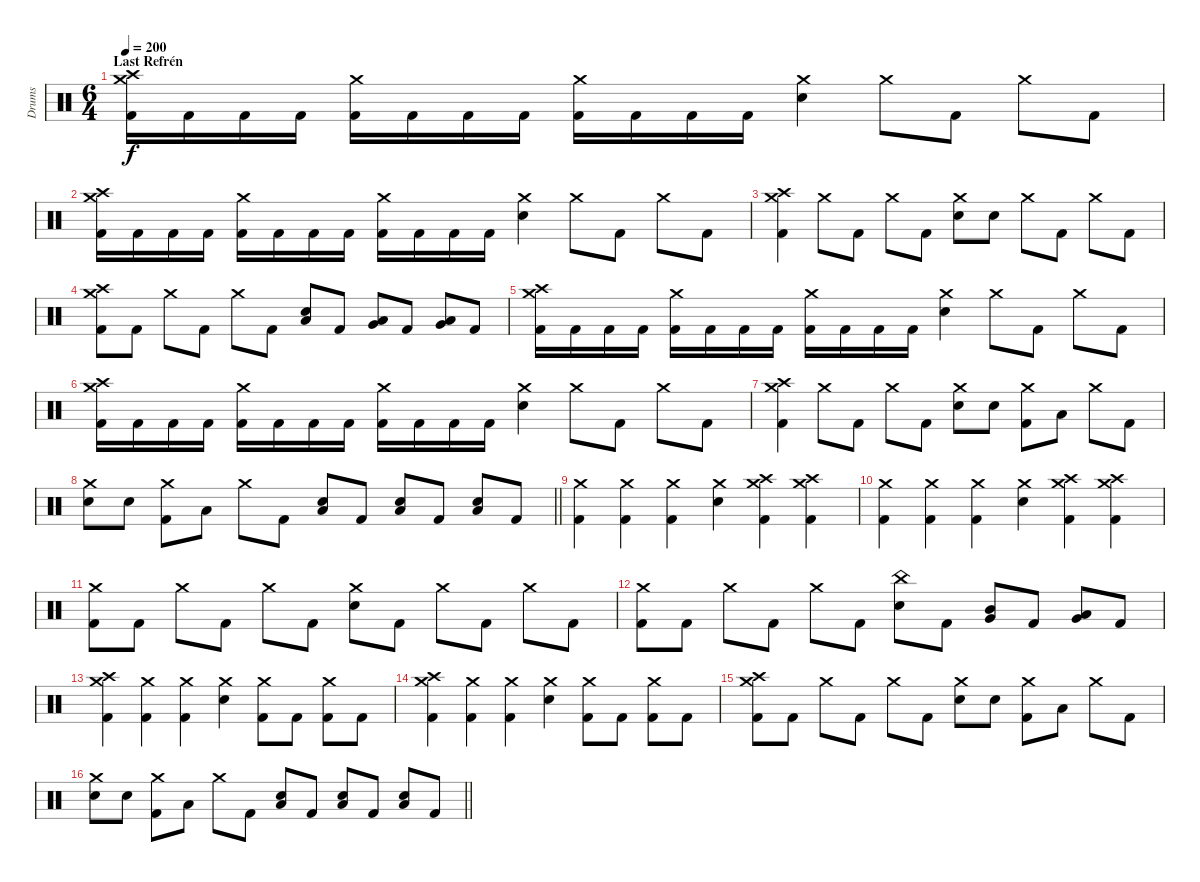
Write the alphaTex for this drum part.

\track ("Drums" "Drums") {instrument percussion}
\staff {score}
\articulation defaults
\ts (6 4)
\section ("" "Last Refrén")
\tempo 200
\clef neutral
\ks c
("Crash medium (hit)" "Crash high (hit)" "Kick (hit) 2").16{dy f} "Kick (hit) 2".16 "Kick (hit) 2".16 "Kick (hit) 2".16 ("Crash medium (hit)" "Kick (hit) 2").16 "Kick (hit) 2".16 "Kick (hit) 2".16 "Kick (hit) 2".16 ("Crash medium (hit)" "Kick (hit) 2").16 "Kick (hit) 2".16 "Kick (hit) 2".16 "Kick (hit) 2".16 ("Crash medium (hit)" "Electric Snare (hit)").4 "Crash medium (hit)".8 "Kick (hit) 2".8 "Crash medium (hit)".8 "Kick (hit) 2".8 |
("Crash medium (hit)" "Crash high (hit)" "Kick (hit) 2").16 "Kick (hit) 2".16 "Kick (hit) 2".16 "Kick (hit) 2".16 ("Crash medium (hit)" "Kick (hit) 2").16 "Kick (hit) 2".16 "Kick (hit) 2".16 "Kick (hit) 2".16 ("Crash medium (hit)" "Kick (hit) 2").16 "Kick (hit) 2".16 "Kick (hit) 2".16 "Kick (hit) 2".16 ("Crash medium (hit)" "Electric Snare (hit)").4 "Crash medium (hit)".8 "Kick (hit) 2".8 "Crash medium (hit)".8 "Kick (hit) 2".8 |
("Crash medium (hit)" "Crash high (hit)" "Kick (hit) 2").4 "Crash medium (hit)".8 "Kick (hit) 2".8 "Crash medium (hit)".8 "Kick (hit) 2".8 ("Crash medium (hit)" "Electric Snare (hit)").8 "Electric Snare (hit)".8 "Crash medium (hit)".8 "Kick (hit) 2".8 "Crash medium (hit)".8 "Kick (hit) 2".8 |
("Crash medium (hit)" "Crash high (hit)" "Kick (hit) 2").8 "Kick (hit) 2".8 "Crash medium (hit)".8 "Kick (hit) 2".8 "Crash medium (hit)".8 "Kick (hit) 2".8 ("Low Floor Tom (hit)" "Electric Snare (hit)").8 "Kick (hit) 2".8 ("Low Tom (hit)" "Very Low Tom (hit)").8 "Kick (hit) 2".8 ("Very Low Tom (hit)" "Low Floor Tom (hit)").8 "Kick (hit) 2".8 |
("Crash medium (hit)" "Crash high (hit)" "Kick (hit) 2").16 "Kick (hit) 2".16 "Kick (hit) 2".16 "Kick (hit) 2".16 ("Crash medium (hit)" "Kick (hit) 2").16 "Kick (hit) 2".16 "Kick (hit) 2".16 "Kick (hit) 2".16 ("Crash medium (hit)" "Kick (hit) 2").16 "Kick (hit) 2".16 "Kick (hit) 2".16 "Kick (hit) 2".16 ("Crash medium (hit)" "Electric Snare (hit)").4 "Crash medium (hit)".8 "Kick (hit) 2".8 "Crash medium (hit)".8 "Kick (hit) 2".8 |
("Crash medium (hit)" "Crash high (hit)" "Kick (hit) 2").16 "Kick (hit) 2".16 "Kick (hit) 2".16 "Kick (hit) 2".16 ("Crash medium (hit)" "Kick (hit) 2").16 "Kick (hit) 2".16 "Kick (hit) 2".16 "Kick (hit) 2".16 ("Crash medium (hit)" "Kick (hit) 2").16 "Kick (hit) 2".16 "Kick (hit) 2".16 "Kick (hit) 2".16 ("Crash medium (hit)" "Electric Snare (hit)").4 "Crash medium (hit)".8 "Kick (hit) 2".8 "Crash medium (hit)".8 "Kick (hit) 2".8 |
("Crash medium (hit)" "Crash high (hit)" "Kick (hit) 2").4 "Crash medium (hit)".8 "Kick (hit) 2".8 "Crash medium (hit)".8 "Kick (hit) 2".8 ("Crash medium (hit)" "Electric Snare (hit)").8 "Electric Snare (hit)".8 ("Crash medium (hit)" "Kick (hit) 2").8 "Low Tom (hit)".8 "Crash medium (hit)".8 "Kick (hit) 2".8 |
\barLineRight lightlight
("Crash medium (hit)" "Electric Snare (hit)").8 "Electric Snare (hit)".8 ("Crash medium (hit)" "Kick (hit) 2").8 "Low Tom (hit)".8 "Crash medium (hit)".8 "Kick (hit) 2".8 ("Low Floor Tom (hit)" "Electric Snare (hit)").8 "Kick (hit) 2".8 ("Low Floor Tom (hit)" "Electric Snare (hit)").8 "Kick (hit) 2".8 ("Low Floor Tom (hit)" "Electric Snare (hit)").8 "Kick (hit) 2".8 |
("Crash medium (hit)" "Kick (hit) 2").4 ("Crash medium (hit)" "Kick (hit) 2").4 ("Crash medium (hit)" "Kick (hit) 2").4 ("Crash medium (hit)" "Electric Snare (hit)").4 ("Crash medium (hit)" "Crash high (hit)" "Kick (hit) 2").4 ("Crash medium (hit)" "Crash high (hit)" "Kick (hit) 2").4 |
("Crash medium (hit)" "Kick (hit) 2").4 ("Crash medium (hit)" "Kick (hit) 2").4 ("Crash medium (hit)" "Kick (hit) 2").4 ("Crash medium (hit)" "Electric Snare (hit)").4 ("Crash medium (hit)" "Crash high (hit)" "Kick (hit) 2").4 ("Crash medium (hit)" "Crash high (hit)" "Kick (hit) 2").4 |
("Crash medium (hit)" "Kick (hit) 2").8 "Kick (hit) 2".8 "Crash medium (hit)".8 "Kick (hit) 2".8 "Crash medium (hit)".8 "Kick (hit) 2".8 ("Crash medium (hit)" "Electric Snare (hit)").8 "Kick (hit) 2".8 "Crash medium (hit)".8 "Kick (hit) 2".8 "Crash medium (hit)".8 "Kick (hit) 2".8 |
("Crash medium (hit)" "Kick (hit) 2").8 "Kick (hit) 2".8 "Crash medium (hit)".8 "Kick (hit) 2".8 "Crash medium (hit)".8 "Kick (hit) 2".8 ("China (hit)" "Electric Snare (hit)").8 "Kick (hit) 2".8 ("Mid Tom (hit)" "Very Low Tom (hit)").8 "Kick (hit) 2".8 ("Very Low Tom (hit)" "Low Floor Tom (hit)").8 "Kick (hit) 2".8 |
("Crash medium (hit)" "Crash high (hit)" "Kick (hit) 2").4 ("Crash medium (hit)" "Kick (hit) 2").4 ("Crash medium (hit)" "Kick (hit) 2").4 ("Crash medium (hit)" "Electric Snare (hit)").4 ("Crash medium (hit)" "Kick (hit) 2").8 "Kick (hit) 2".8 ("Crash medium (hit)" "Kick (hit) 2").8 "Kick (hit) 2".8 |
("Crash medium (hit)" "Crash high (hit)" "Kick (hit) 2").4 ("Crash medium (hit)" "Kick (hit) 2").4 ("Crash medium (hit)" "Kick (hit) 2").4 ("Crash medium (hit)" "Electric Snare (hit)").4 ("Crash medium (hit)" "Kick (hit) 2").8 "Kick (hit) 2".8 ("Crash medium (hit)" "Kick (hit) 2").8 "Kick (hit) 2".8 |
("Crash medium (hit)" "Crash high (hit)" "Kick (hit) 2").8 "Kick (hit) 2".8 "Crash medium (hit)".8 "Kick (hit) 2".8 "Crash medium (hit)".8 "Kick (hit) 2".8 ("Crash medium (hit)" "Electric Snare (hit)").8 "Electric Snare (hit)".8 ("Crash medium (hit)" "Kick (hit) 2").8 "Low Tom (hit)".8 "Crash medium (hit)".8 "Kick (hit) 2".8 |
\barLineRight lightlight
("Crash medium (hit)" "Electric Snare (hit)").8 "Electric Snare (hit)".8 ("Crash medium (hit)" "Kick (hit) 2").8 "Low Tom (hit)".8 "Crash medium (hit)".8 "Kick (hit) 2".8 ("Low Floor Tom (hit)" "Electric Snare (hit)").8 "Kick (hit) 2".8 ("Low Floor Tom (hit)" "Electric Snare (hit)").8 "Kick (hit) 2".8 ("Low Floor Tom (hit)" "Electric Snare (hit)").8 "Kick (hit) 2".8
